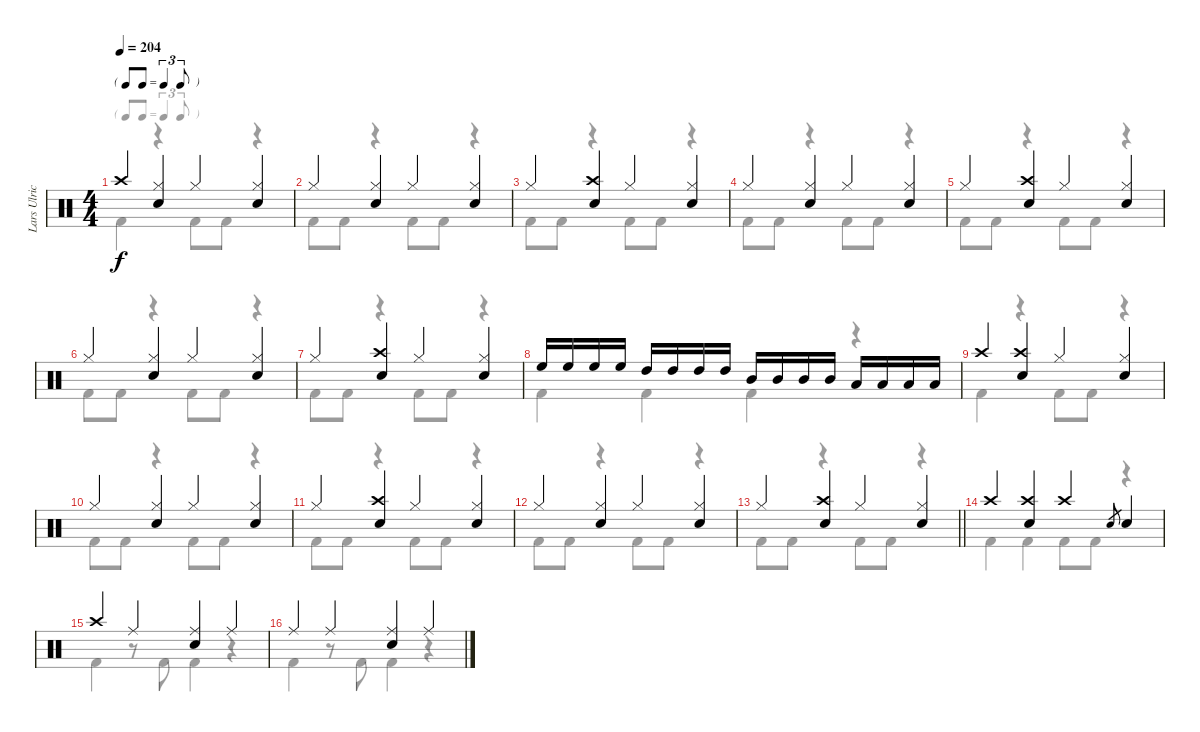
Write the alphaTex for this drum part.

\track ("Lars Ulrich" "Lars Ulric") {instrument percussion}
\staff {score}
\articulation defaults
\voice
\ts (4 4)
\tf triplet8th
\tempo 204
\clef neutral
\ks c "Crash high (hit)".4{dy f}
("Hi-Hat (closed)" "Snare (hit) 2").4 "Hi-Hat (closed)".4 ("Hi-Hat (closed)" "Snare (hit) 2").4 |
"Hi-Hat (closed)".4 ("Hi-Hat (closed)" "Snare (hit) 2").4 "Hi-Hat (closed)".4 ("Hi-Hat (closed)" "Snare (hit) 2").4 |
"Hi-Hat (closed)".4 ("Crash high (hit)" "Snare (hit) 2").4 "Hi-Hat (closed)".4 ("Hi-Hat (closed)" "Snare (hit) 2").4 |
"Hi-Hat (closed)".4 ("Hi-Hat (closed)" "Snare (hit) 2").4 "Hi-Hat (closed)".4 ("Hi-Hat (closed)" "Snare (hit) 2").4 |
"Hi-Hat (closed)".4 ("Crash high (hit)" "Snare (hit) 2").4 "Hi-Hat (closed)".4 ("Hi-Hat (closed)" "Snare (hit) 2").4 |
"Hi-Hat (closed)".4 ("Hi-Hat (closed)" "Snare (hit) 2").4 "Hi-Hat (closed)".4 ("Hi-Hat (closed)" "Snare (hit) 2").4 |
"Hi-Hat (closed)".4 ("Crash high (hit)" "Snare (hit) 2").4 "Hi-Hat (closed)".4 ("Hi-Hat (closed)" "Snare (hit) 2").4 |
"High Floor Tom (hit)".16 "High Floor Tom (hit)".16 "High Floor Tom (hit)".16 "High Floor Tom (hit)".16 "High Tom (hit)".16 "High Tom (hit)".16 "High Tom (hit)".16 "High Tom (hit)".16 "Mid Tom (hit)".16 "Mid Tom (hit)".16 "Mid Tom (hit)".16 "Mid Tom (hit)".16 "Low Tom (hit)".16 "Low Tom (hit)".16 "Low Tom (hit)".16 "Low Tom (hit)".16 |
"Crash high (hit)".4 ("Crash high (hit)" "Snare (hit) 2").4 "Hi-Hat (closed)".4 ("Hi-Hat (closed)" "Snare (hit) 2").4 |
"Hi-Hat (closed)".4 ("Hi-Hat (closed)" "Snare (hit) 2").4 "Hi-Hat (closed)".4 ("Hi-Hat (closed)" "Snare (hit) 2").4 |
"Hi-Hat (closed)".4 ("Crash high (hit)" "Snare (hit) 2").4 "Hi-Hat (closed)".4 ("Hi-Hat (closed)" "Snare (hit) 2").4 |
"Hi-Hat (closed)".4 ("Hi-Hat (closed)" "Snare (hit) 2").4 "Hi-Hat (closed)".4 ("Hi-Hat (closed)" "Snare (hit) 2").4 |
\barLineRight lightlight "Hi-Hat (closed)".4
("Crash high (hit)" "Snare (hit) 2").4 "Hi-Hat (closed)".4 ("Hi-Hat (closed)" "Snare (hit) 2").4 |
"Crash high (hit)".4 ("Crash high (hit)" "Snare (hit) 2").4 "Crash high (hit)".4 "Snare (hit) 2"{h}.8{gr} "Snare (hit) 2".4 |
"Crash high (hit)".4 "Ride (middle)".4 ("Ride (middle)" "Snare (hit) 2").4 "Ride (middle)".4 |
"Ride (middle)".4 "Ride (middle)".4 ("Ride (middle)" "Snare (hit) 2").4 "Ride (middle)".4
\voice
\clef neutral
\ottava regular
\simile none
\ks c "Kick (hit) 2".4{dy f}
r.4 "Kick (hit) 2".8 "Kick (hit) 2".8 r.4 |
"Kick (hit) 2".8 "Kick (hit) 2".8 r.4 "Kick (hit) 2".8 "Kick (hit) 2".8 r.4 |
"Kick (hit) 2".8 "Kick (hit) 2".8 r.4 "Kick (hit) 2".8 "Kick (hit) 2".8 r.4 |
"Kick (hit) 2".8 "Kick (hit) 2".8 r.4 "Kick (hit) 2".8 "Kick (hit) 2".8 r.4 |
"Kick (hit) 2".8 "Kick (hit) 2".8 r.4 "Kick (hit) 2".8 "Kick (hit) 2".8 r.4 |
"Kick (hit) 2".8 "Kick (hit) 2".8 r.4 "Kick (hit) 2".8 "Kick (hit) 2".8 r.4 |
"Kick (hit) 2".8 "Kick (hit) 2".8 r.4 "Kick (hit) 2".8 "Kick (hit) 2".8 r.4 |
"Kick (hit) 2".4 "Kick (hit) 2".4 "Kick (hit) 2".4 r.4 |
"Kick (hit) 2".4 r.4 "Kick (hit) 2".8 "Kick (hit) 2".8 r.4 |
"Kick (hit) 2".8 "Kick (hit) 2".8 r.4 "Kick (hit) 2".8 "Kick (hit) 2".8 r.4 |
"Kick (hit) 2".8 "Kick (hit) 2".8 r.4 "Kick (hit) 2".8 "Kick (hit) 2".8 r.4 |
"Kick (hit) 2".8 "Kick (hit) 2".8 r.4 "Kick (hit) 2".8 "Kick (hit) 2".8 r.4 |
\barLineRight lightlight "Kick (hit) 2".8 "Kick (hit) 2".8
r.4 "Kick (hit) 2".8 "Kick (hit) 2".8 r.4 |
"Kick (hit) 2".4 "Kick (hit) 2".4 "Kick (hit) 2".8 "Kick (hit) 2".8 r.4 |
"Kick (hit) 2".4 r.8 "Kick (hit) 2".8 "Kick (hit) 2".4 r.4 |
"Kick (hit) 2".4 r.8 "Kick (hit) 2".8 "Kick (hit) 2".4 r.4
